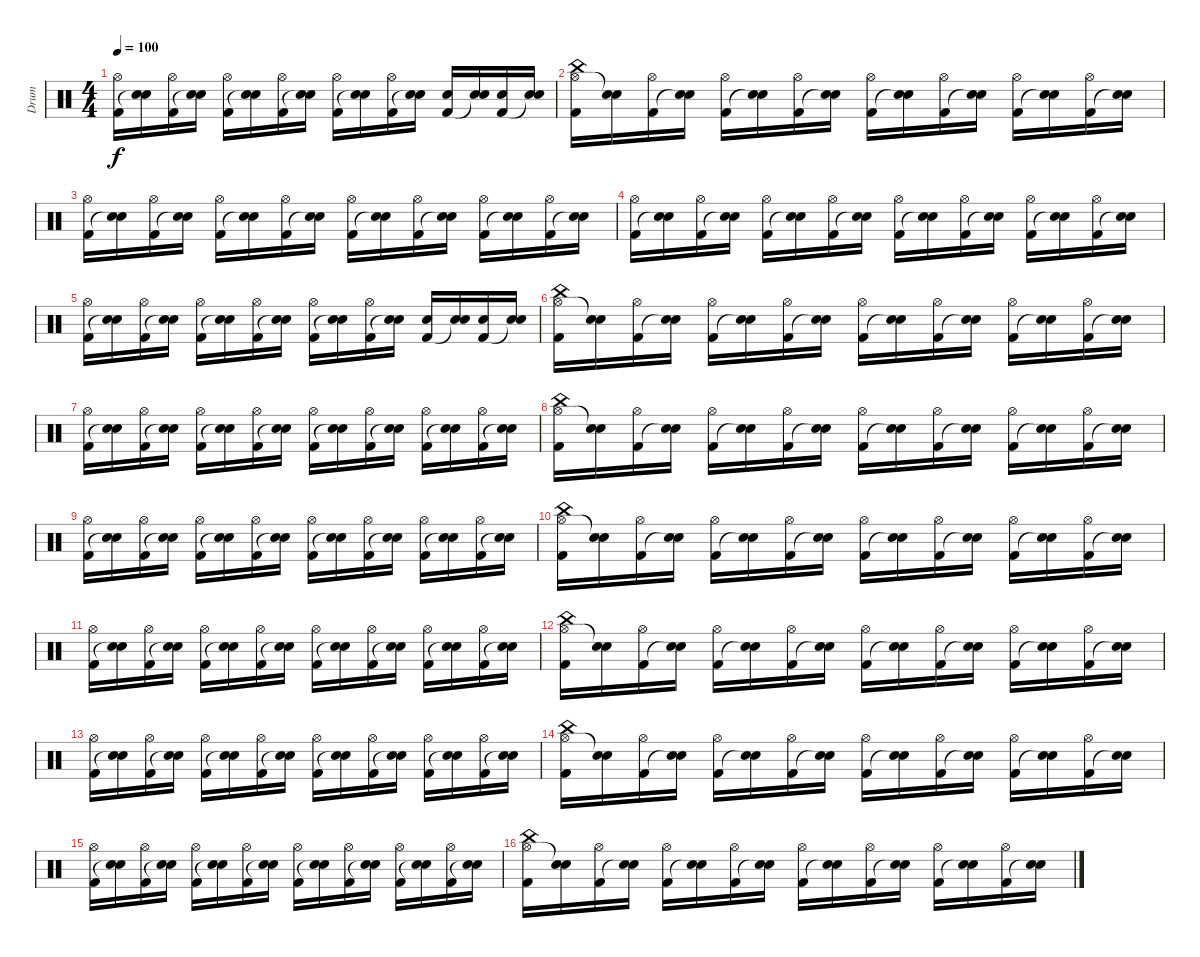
\track ("Drum" "Drum") {instrument percussion}
\staff {score}
\articulation defaults
\ts (4 4)
\tempo 100
\clef neutral
\ks c
("Hi-Hat (open)" "Kick (hit) 2").16{dy f} ("Electric Snare (hit)" "Snare (hit)"{t}).16 ("Hi-Hat (open)" "Kick (hit) 2").16 ("Electric Snare (hit)" "Snare (hit)"{t}).16 ("Hi-Hat (open)" "Kick (hit) 2").16 ("Electric Snare (hit)" "Snare (hit)"{t}).16 ("Hi-Hat (open)" "Kick (hit) 2").16 ("Electric Snare (hit)" "Snare (hit)"{t}).16 ("Hi-Hat (open)" "Kick (hit) 2").16 ("Electric Snare (hit)" "Snare (hit)"{t}).16 ("Hi-Hat (open)" "Kick (hit) 2").16 ("Electric Snare (hit)" "Snare (hit)"{t}).16 ("Snare (hit) 2" "Kick (hit) 2").16 ("Snare (hit) 2" "Snare (hit)"{t}).16 ("Snare (hit) 2" "Kick (hit) 2").16 ("Snare (hit) 2" "Snare (hit)"{t}).16 |
("China (hit)" "Hi-Hat (open)" "Kick (hit) 2").16 ("Electric Snare (hit)" "Snare (hit)"{t}).16 ("Hi-Hat (open)" "Kick (hit) 2").16 ("Electric Snare (hit)" "Snare (hit)"{t}).16 ("Hi-Hat (open)" "Kick (hit) 2").16 ("Electric Snare (hit)" "Snare (hit)"{t}).16 ("Hi-Hat (open)" "Kick (hit) 2").16 ("Electric Snare (hit)" "Snare (hit)"{t}).16 ("Hi-Hat (open)" "Kick (hit) 2").16 ("Electric Snare (hit)" "Snare (hit)"{t}).16 ("Hi-Hat (open)" "Kick (hit) 2").16 ("Electric Snare (hit)" "Snare (hit)"{t}).16 ("Hi-Hat (open)" "Kick (hit) 2").16 ("Electric Snare (hit)" "Snare (hit)"{t}).16 ("Hi-Hat (open)" "Kick (hit) 2").16 ("Electric Snare (hit)" "Snare (hit)"{t}).16 |
("Hi-Hat (open)" "Kick (hit) 2").16 ("Electric Snare (hit)" "Snare (hit)"{t}).16 ("Hi-Hat (open)" "Kick (hit) 2").16 ("Electric Snare (hit)" "Snare (hit)"{t}).16 ("Hi-Hat (open)" "Kick (hit) 2").16 ("Electric Snare (hit)" "Snare (hit)"{t}).16 ("Hi-Hat (open)" "Kick (hit) 2").16 ("Electric Snare (hit)" "Snare (hit)"{t}).16 ("Hi-Hat (open)" "Kick (hit) 2").16 ("Electric Snare (hit)" "Snare (hit)"{t}).16 ("Hi-Hat (open)" "Kick (hit) 2").16 ("Electric Snare (hit)" "Snare (hit)"{t}).16 ("Hi-Hat (open)" "Kick (hit) 2").16 ("Electric Snare (hit)" "Snare (hit)"{t}).16 ("Hi-Hat (open)" "Kick (hit) 2").16 ("Electric Snare (hit)" "Snare (hit)"{t}).16 |
("Hi-Hat (open)" "Kick (hit) 2").16 ("Electric Snare (hit)" "Snare (hit)"{t}).16 ("Hi-Hat (open)" "Kick (hit) 2").16 ("Electric Snare (hit)" "Snare (hit)"{t}).16 ("Hi-Hat (open)" "Kick (hit) 2").16 ("Electric Snare (hit)" "Snare (hit)"{t}).16 ("Hi-Hat (open)" "Kick (hit) 2").16 ("Electric Snare (hit)" "Snare (hit)"{t}).16 ("Hi-Hat (open)" "Kick (hit) 2").16 ("Electric Snare (hit)" "Snare (hit)"{t}).16 ("Hi-Hat (open)" "Kick (hit) 2").16 ("Electric Snare (hit)" "Snare (hit)"{t}).16 ("Hi-Hat (open)" "Kick (hit) 2").16 ("Electric Snare (hit)" "Snare (hit)"{t}).16 ("Hi-Hat (open)" "Kick (hit) 2").16 ("Electric Snare (hit)" "Snare (hit)"{t}).16 |
("Hi-Hat (open)" "Kick (hit) 2").16 ("Electric Snare (hit)" "Snare (hit)"{t}).16 ("Hi-Hat (open)" "Kick (hit) 2").16 ("Electric Snare (hit)" "Snare (hit)"{t}).16 ("Hi-Hat (open)" "Kick (hit) 2").16 ("Electric Snare (hit)" "Snare (hit)"{t}).16 ("Hi-Hat (open)" "Kick (hit) 2").16 ("Electric Snare (hit)" "Snare (hit)"{t}).16 ("Hi-Hat (open)" "Kick (hit) 2").16 ("Electric Snare (hit)" "Snare (hit)"{t}).16 ("Hi-Hat (open)" "Kick (hit) 2").16 ("Electric Snare (hit)" "Snare (hit)"{t}).16 ("Snare (hit) 2" "Kick (hit) 2").16 ("Snare (hit) 2" "Snare (hit)"{t}).16 ("Snare (hit) 2" "Kick (hit) 2").16 ("Snare (hit) 2" "Snare (hit)"{t}).16 |
("China (hit)" "Hi-Hat (open)" "Kick (hit) 2").16 ("Electric Snare (hit)" "Snare (hit)"{t}).16 ("Hi-Hat (open)" "Kick (hit) 2").16 ("Electric Snare (hit)" "Snare (hit)"{t}).16 ("Hi-Hat (open)" "Kick (hit) 2").16 ("Electric Snare (hit)" "Snare (hit)"{t}).16 ("Hi-Hat (open)" "Kick (hit) 2").16 ("Electric Snare (hit)" "Snare (hit)"{t}).16 ("Hi-Hat (open)" "Kick (hit) 2").16 ("Electric Snare (hit)" "Snare (hit)"{t}).16 ("Hi-Hat (open)" "Kick (hit) 2").16 ("Electric Snare (hit)" "Snare (hit)"{t}).16 ("Hi-Hat (open)" "Kick (hit) 2").16 ("Electric Snare (hit)" "Snare (hit)"{t}).16 ("Hi-Hat (open)" "Kick (hit) 2").16 ("Electric Snare (hit)" "Snare (hit)"{t}).16 |
("Hi-Hat (open)" "Kick (hit) 2").16 ("Electric Snare (hit)" "Snare (hit)"{t}).16 ("Hi-Hat (open)" "Kick (hit) 2").16 ("Electric Snare (hit)" "Snare (hit)"{t}).16 ("Hi-Hat (open)" "Kick (hit) 2").16 ("Electric Snare (hit)" "Snare (hit)"{t}).16 ("Hi-Hat (open)" "Kick (hit) 2").16 ("Electric Snare (hit)" "Snare (hit)"{t}).16 ("Hi-Hat (open)" "Kick (hit) 2").16 ("Electric Snare (hit)" "Snare (hit)"{t}).16 ("Hi-Hat (open)" "Kick (hit) 2").16 ("Electric Snare (hit)" "Snare (hit)"{t}).16 ("Hi-Hat (open)" "Kick (hit) 2").16 ("Electric Snare (hit)" "Snare (hit)"{t}).16 ("Hi-Hat (open)" "Kick (hit) 2").16 ("Electric Snare (hit)" "Snare (hit)"{t}).16 |
("China (hit)" "Hi-Hat (open)" "Kick (hit) 2").16 ("Electric Snare (hit)" "Snare (hit)"{t}).16 ("Hi-Hat (open)" "Kick (hit) 2").16 ("Electric Snare (hit)" "Snare (hit)"{t}).16 ("Hi-Hat (open)" "Kick (hit) 2").16 ("Electric Snare (hit)" "Snare (hit)"{t}).16 ("Hi-Hat (open)" "Kick (hit) 2").16 ("Electric Snare (hit)" "Snare (hit)"{t}).16 ("Hi-Hat (open)" "Kick (hit) 2").16 ("Electric Snare (hit)" "Snare (hit)"{t}).16 ("Hi-Hat (open)" "Kick (hit) 2").16 ("Electric Snare (hit)" "Snare (hit)"{t}).16 ("Hi-Hat (open)" "Kick (hit) 2").16 ("Electric Snare (hit)" "Snare (hit)"{t}).16 ("Hi-Hat (open)" "Kick (hit) 2").16 ("Electric Snare (hit)" "Snare (hit)"{t}).16 |
("Hi-Hat (open)" "Kick (hit) 2").16 ("Electric Snare (hit)" "Snare (hit)"{t}).16 ("Hi-Hat (open)" "Kick (hit) 2").16 ("Electric Snare (hit)" "Snare (hit)"{t}).16 ("Hi-Hat (open)" "Kick (hit) 2").16 ("Electric Snare (hit)" "Snare (hit)"{t}).16 ("Hi-Hat (open)" "Kick (hit) 2").16 ("Electric Snare (hit)" "Snare (hit)"{t}).16 ("Hi-Hat (open)" "Kick (hit) 2").16 ("Electric Snare (hit)" "Snare (hit)"{t}).16 ("Hi-Hat (open)" "Kick (hit) 2").16 ("Electric Snare (hit)" "Snare (hit)"{t}).16 ("Hi-Hat (open)" "Kick (hit) 2").16 ("Electric Snare (hit)" "Snare (hit)"{t}).16 ("Hi-Hat (open)" "Kick (hit) 2").16 ("Electric Snare (hit)" "Snare (hit)"{t}).16 |
("China (hit)" "Hi-Hat (open)" "Kick (hit) 2").16 ("Electric Snare (hit)" "Snare (hit)"{t}).16 ("Hi-Hat (open)" "Kick (hit) 2").16 ("Electric Snare (hit)" "Snare (hit)"{t}).16 ("Hi-Hat (open)" "Kick (hit) 2").16 ("Electric Snare (hit)" "Snare (hit)"{t}).16 ("Hi-Hat (open)" "Kick (hit) 2").16 ("Electric Snare (hit)" "Snare (hit)"{t}).16 ("Hi-Hat (open)" "Kick (hit) 2").16 ("Electric Snare (hit)" "Snare (hit)"{t}).16 ("Hi-Hat (open)" "Kick (hit) 2").16 ("Electric Snare (hit)" "Snare (hit)"{t}).16 ("Hi-Hat (open)" "Kick (hit) 2").16 ("Electric Snare (hit)" "Snare (hit)"{t}).16 ("Hi-Hat (open)" "Kick (hit) 2").16 ("Electric Snare (hit)" "Snare (hit)"{t}).16 |
("Hi-Hat (open)" "Kick (hit) 2").16 ("Electric Snare (hit)" "Snare (hit)"{t}).16 ("Hi-Hat (open)" "Kick (hit) 2").16 ("Electric Snare (hit)" "Snare (hit)"{t}).16 ("Hi-Hat (open)" "Kick (hit) 2").16 ("Electric Snare (hit)" "Snare (hit)"{t}).16 ("Hi-Hat (open)" "Kick (hit) 2").16 ("Electric Snare (hit)" "Snare (hit)"{t}).16 ("Hi-Hat (open)" "Kick (hit) 2").16 ("Electric Snare (hit)" "Snare (hit)"{t}).16 ("Hi-Hat (open)" "Kick (hit) 2").16 ("Electric Snare (hit)" "Snare (hit)"{t}).16 ("Hi-Hat (open)" "Kick (hit) 2").16 ("Electric Snare (hit)" "Snare (hit)"{t}).16 ("Hi-Hat (open)" "Kick (hit) 2").16 ("Electric Snare (hit)" "Snare (hit)"{t}).16 |
("China (hit)" "Hi-Hat (open)" "Kick (hit) 2").16 ("Electric Snare (hit)" "Snare (hit)"{t}).16 ("Hi-Hat (open)" "Kick (hit) 2").16 ("Electric Snare (hit)" "Snare (hit)"{t}).16 ("Hi-Hat (open)" "Kick (hit) 2").16 ("Electric Snare (hit)" "Snare (hit)"{t}).16 ("Hi-Hat (open)" "Kick (hit) 2").16 ("Electric Snare (hit)" "Snare (hit)"{t}).16 ("Hi-Hat (open)" "Kick (hit) 2").16 ("Electric Snare (hit)" "Snare (hit)"{t}).16 ("Hi-Hat (open)" "Kick (hit) 2").16 ("Electric Snare (hit)" "Snare (hit)"{t}).16 ("Hi-Hat (open)" "Kick (hit) 2").16 ("Electric Snare (hit)" "Snare (hit)"{t}).16 ("Hi-Hat (open)" "Kick (hit) 2").16 ("Electric Snare (hit)" "Snare (hit)"{t}).16 |
("Hi-Hat (open)" "Kick (hit) 2").16 ("Electric Snare (hit)" "Snare (hit)"{t}).16 ("Hi-Hat (open)" "Kick (hit) 2").16 ("Electric Snare (hit)" "Snare (hit)"{t}).16 ("Hi-Hat (open)" "Kick (hit) 2").16 ("Electric Snare (hit)" "Snare (hit)"{t}).16 ("Hi-Hat (open)" "Kick (hit) 2").16 ("Electric Snare (hit)" "Snare (hit)"{t}).16 ("Hi-Hat (open)" "Kick (hit) 2").16 ("Electric Snare (hit)" "Snare (hit)"{t}).16 ("Hi-Hat (open)" "Kick (hit) 2").16 ("Electric Snare (hit)" "Snare (hit)"{t}).16 ("Hi-Hat (open)" "Kick (hit) 2").16 ("Electric Snare (hit)" "Snare (hit)"{t}).16 ("Hi-Hat (open)" "Kick (hit) 2").16 ("Electric Snare (hit)" "Snare (hit)"{t}).16 |
("China (hit)" "Hi-Hat (open)" "Kick (hit) 2").16 ("Electric Snare (hit)" "Snare (hit)"{t}).16 ("Hi-Hat (open)" "Kick (hit) 2").16 ("Electric Snare (hit)" "Snare (hit)"{t}).16 ("Hi-Hat (open)" "Kick (hit) 2").16 ("Electric Snare (hit)" "Snare (hit)"{t}).16 ("Hi-Hat (open)" "Kick (hit) 2").16 ("Electric Snare (hit)" "Snare (hit)"{t}).16 ("Hi-Hat (open)" "Kick (hit) 2").16 ("Electric Snare (hit)" "Snare (hit)"{t}).16 ("Hi-Hat (open)" "Kick (hit) 2").16 ("Electric Snare (hit)" "Snare (hit)"{t}).16 ("Hi-Hat (open)" "Kick (hit) 2").16 ("Electric Snare (hit)" "Snare (hit)"{t}).16 ("Hi-Hat (open)" "Kick (hit) 2").16 ("Electric Snare (hit)" "Snare (hit)"{t}).16 |
("Hi-Hat (open)" "Kick (hit) 2").16 ("Electric Snare (hit)" "Snare (hit)"{t}).16 ("Hi-Hat (open)" "Kick (hit) 2").16 ("Electric Snare (hit)" "Snare (hit)"{t}).16 ("Hi-Hat (open)" "Kick (hit) 2").16 ("Electric Snare (hit)" "Snare (hit)"{t}).16 ("Hi-Hat (open)" "Kick (hit) 2").16 ("Electric Snare (hit)" "Snare (hit)"{t}).16 ("Hi-Hat (open)" "Kick (hit) 2").16 ("Electric Snare (hit)" "Snare (hit)"{t}).16 ("Hi-Hat (open)" "Kick (hit) 2").16 ("Electric Snare (hit)" "Snare (hit)"{t}).16 ("Hi-Hat (open)" "Kick (hit) 2").16 ("Electric Snare (hit)" "Snare (hit)"{t}).16 ("Hi-Hat (open)" "Kick (hit) 2").16 ("Electric Snare (hit)" "Snare (hit)"{t}).16 |
("China (hit)" "Hi-Hat (open)" "Kick (hit) 2").16 ("Electric Snare (hit)" "Snare (hit)"{t}).16 ("Hi-Hat (open)" "Kick (hit) 2").16 ("Electric Snare (hit)" "Snare (hit)"{t}).16 ("Hi-Hat (open)" "Kick (hit) 2").16 ("Electric Snare (hit)" "Snare (hit)"{t}).16 ("Hi-Hat (open)" "Kick (hit) 2").16 ("Electric Snare (hit)" "Snare (hit)"{t}).16 ("Hi-Hat (open)" "Kick (hit) 2").16 ("Electric Snare (hit)" "Snare (hit)"{t}).16 ("Hi-Hat (open)" "Kick (hit) 2").16 ("Electric Snare (hit)" "Snare (hit)"{t}).16 ("Hi-Hat (open)" "Kick (hit) 2").16 ("Electric Snare (hit)" "Snare (hit)"{t}).16 ("Hi-Hat (open)" "Kick (hit) 2").16 ("Electric Snare (hit)" "Snare (hit)"{t}).16
